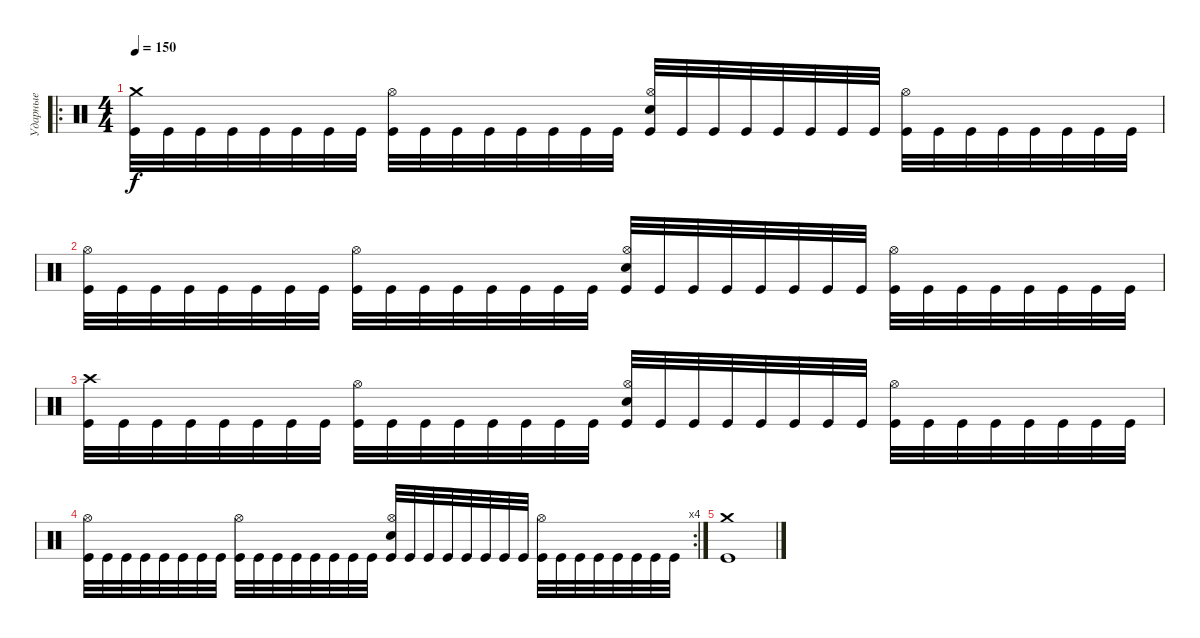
\track ("Ударные" "Ударные") {instrument percussion}
\staff {score}
\articulation defaults
\ro
\ts (4 4)
\tempo 150
\clef neutral
\ks c
("Crash medium (hit)" "Kick (hit)").32{dy f} "Kick (hit)".32 "Kick (hit)".32 "Kick (hit)".32 "Kick (hit)".32 "Kick (hit)".32 "Kick (hit)".32 "Kick (hit)".32 ("Hi-Hat (open)" "Kick (hit)").32 "Kick (hit)".32 "Kick (hit)".32 "Kick (hit)".32 "Kick (hit)".32 "Kick (hit)".32 "Kick (hit)".32 "Kick (hit)".32 ("Snare (hit) 2" "Hi-Hat (open)" "Kick (hit)").32 "Kick (hit)".32 "Kick (hit)".32 "Kick (hit)".32 "Kick (hit)".32 "Kick (hit)".32 "Kick (hit)".32 "Kick (hit)".32 ("Hi-Hat (open)" "Kick (hit)").32 "Kick (hit)".32 "Kick (hit)".32 "Kick (hit)".32 "Kick (hit)".32 "Kick (hit)".32 "Kick (hit)".32 "Kick (hit)".32 |
("Hi-Hat (open)" "Kick (hit)").32 "Kick (hit)".32 "Kick (hit)".32 "Kick (hit)".32 "Kick (hit)".32 "Kick (hit)".32 "Kick (hit)".32 "Kick (hit)".32 ("Hi-Hat (open)" "Kick (hit)").32 "Kick (hit)".32 "Kick (hit)".32 "Kick (hit)".32 "Kick (hit)".32 "Kick (hit)".32 "Kick (hit)".32 "Kick (hit)".32 ("Snare (hit) 2" "Hi-Hat (open)" "Kick (hit)").32 "Kick (hit)".32 "Kick (hit)".32 "Kick (hit)".32 "Kick (hit)".32 "Kick (hit)".32 "Kick (hit)".32 "Kick (hit)".32 ("Hi-Hat (open)" "Kick (hit)").32 "Kick (hit)".32 "Kick (hit)".32 "Kick (hit)".32 "Kick (hit)".32 "Kick (hit)".32 "Kick (hit)".32 "Kick (hit)".32 |
("Crash high (hit)" "Kick (hit)").32 "Kick (hit)".32 "Kick (hit)".32 "Kick (hit)".32 "Kick (hit)".32 "Kick (hit)".32 "Kick (hit)".32 "Kick (hit)".32 ("Hi-Hat (open)" "Kick (hit)").32 "Kick (hit)".32 "Kick (hit)".32 "Kick (hit)".32 "Kick (hit)".32 "Kick (hit)".32 "Kick (hit)".32 "Kick (hit)".32 ("Snare (hit) 2" "Hi-Hat (open)" "Kick (hit)").32 "Kick (hit)".32 "Kick (hit)".32 "Kick (hit)".32 "Kick (hit)".32 "Kick (hit)".32 "Kick (hit)".32 "Kick (hit)".32 ("Hi-Hat (open)" "Kick (hit)").32 "Kick (hit)".32 "Kick (hit)".32 "Kick (hit)".32 "Kick (hit)".32 "Kick (hit)".32 "Kick (hit)".32 "Kick (hit)".32 |
\rc 4
("Hi-Hat (open)" "Kick (hit)").32 "Kick (hit)".32 "Kick (hit)".32 "Kick (hit)".32 "Kick (hit)".32 "Kick (hit)".32 "Kick (hit)".32 "Kick (hit)".32 ("Hi-Hat (open)" "Kick (hit)").32 "Kick (hit)".32 "Kick (hit)".32 "Kick (hit)".32 "Kick (hit)".32 "Kick (hit)".32 "Kick (hit)".32 "Kick (hit)".32 ("Snare (hit) 2" "Hi-Hat (open)" "Kick (hit)").32 "Kick (hit)".32 "Kick (hit)".32 "Kick (hit)".32 "Kick (hit)".32 "Kick (hit)".32 "Kick (hit)".32 "Kick (hit)".32 ("Hi-Hat (open)" "Kick (hit)").32 "Kick (hit)".32 "Kick (hit)".32 "Kick (hit)".32 "Kick (hit)".32 "Kick (hit)".32 "Kick (hit)".32 "Kick (hit)".32 |
("Crash medium (hit)" "Kick (hit)").1
